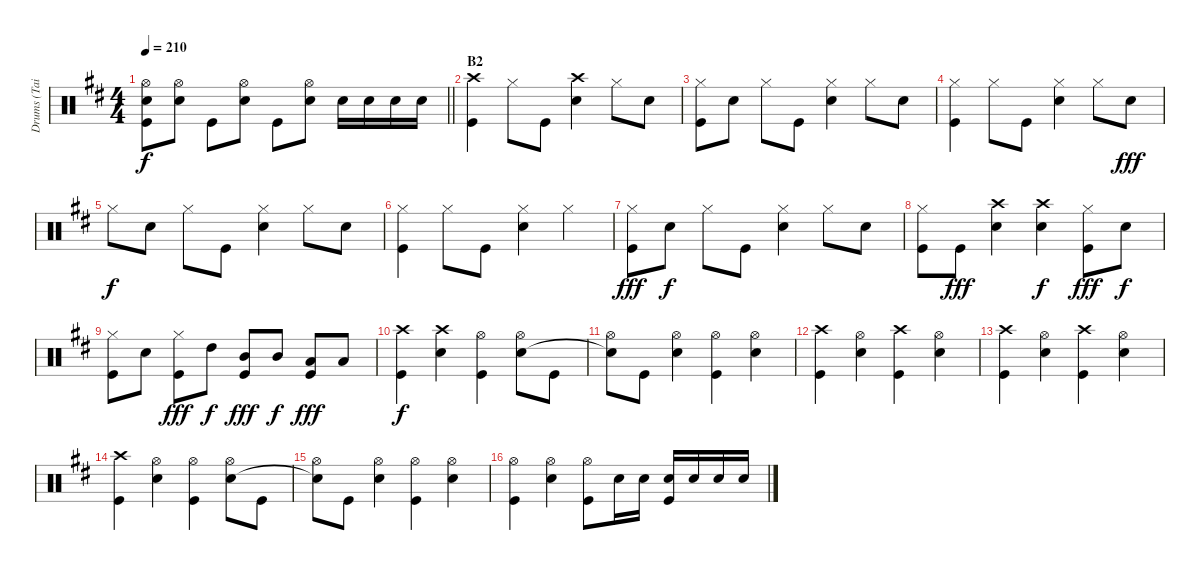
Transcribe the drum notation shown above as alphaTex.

\track ("Drums (Tainaka Ritsu)" "Drums (Tai") {instrument percussion}
\staff {score}
\articulation defaults
\ts (4 4)
\tempo 210
\clef neutral
\barLineRight lightlight
\ks d
("Hi-Hat (open)" "Snare (hit) 2" "Kick (hit)").8{dy f} ("Hi-Hat (open)" "Snare (hit) 2").8 "Kick (hit)".8 ("Hi-Hat (open)" "Snare (hit) 2").8 "Kick (hit)".8 ("Hi-Hat (open)" "Snare (hit) 2").8 "Snare (hit) 2".16 "Snare (hit) 2".16 "Snare (hit) 2".16 "Snare (hit) 2".16 |
\section ("" "B2")
("Crash high (hit)" "Kick (hit)").4 "Hi-Hat (closed)".8 "Kick (hit)".8 ("Crash high (hit)" "Snare (hit) 2").4 "Hi-Hat (closed)".8 "Snare (hit) 2".8 |
("Hi-Hat (closed)" "Kick (hit)").8 "Snare (hit) 2".8 "Hi-Hat (closed)".8 "Kick (hit)".8 ("Hi-Hat (closed)" "Snare (hit) 2").4 "Hi-Hat (closed)".8 "Snare (hit) 2".8 |
("Hi-Hat (closed)" "Kick (hit)").4 "Hi-Hat (closed)".8 "Kick (hit)".8 ("Hi-Hat (closed)" "Snare (hit) 2").4 "Hi-Hat (closed)".8 "Snare (hit) 2".8{dy fff} |
"Hi-Hat (closed)".8{dy f} "Snare (hit) 2".8 "Hi-Hat (closed)".8 "Kick (hit)".8 ("Hi-Hat (closed)" "Snare (hit) 2").4 "Hi-Hat (closed)".8 "Snare (hit) 2".8 |
("Hi-Hat (closed)" "Kick (hit)").4 "Hi-Hat (closed)".8 "Kick (hit)".8 ("Hi-Hat (closed)" "Snare (hit) 2").4 "Hi-Hat (closed)".4 |
("Hi-Hat (closed)" "Kick (hit)").8{dy fff} "Snare (hit) 2".8{dy f} "Hi-Hat (closed)".8 "Kick (hit)".8 ("Hi-Hat (closed)" "Snare (hit) 2").4 "Hi-Hat (closed)".8 "Snare (hit) 2".8 |
("Hi-Hat (closed)" "Kick (hit)").8 "Kick (hit)".8{dy fff} ("Crash high (hit)" "Snare (hit) 2").4 ("Crash high (hit)" "Snare (hit) 2").4{dy f} ("Hi-Hat (closed)" "Kick (hit)").8{dy fff} "Snare (hit) 2".8{dy f} |
("Hi-Hat (closed)" "Kick (hit)").8 "Snare (hit) 2".8 ("Hi-Hat (closed)" "Kick (hit)").8{dy fff} "High Tom (hit)".8{dy f} ("Mid Tom (hit)" "Kick (hit)").8{dy fff} "Mid Tom (hit)".8{dy f} ("Low Tom (hit)" "Kick (hit)").8{dy fff} "Low Tom (hit)".8 |
("Crash high (hit)" "Kick (hit)").4{dy f} ("Crash high (hit)" "Snare (hit) 2").4 ("Hi-Hat (open)" "Kick (hit)").4 ("Hi-Hat (open)" "Snare (hit) 2").8 "Kick (hit)".8 |
("Hi-Hat (open)" "Snare (hit)"{t}).8 "Kick (hit)".8 ("Hi-Hat (open)" "Snare (hit) 2").4 ("Hi-Hat (open)" "Kick (hit)").4 ("Hi-Hat (open)" "Snare (hit) 2").4 |
("Crash high (hit)" "Kick (hit)").4 ("Hi-Hat (open)" "Snare (hit) 2").4 ("Crash high (hit)" "Kick (hit)").4 ("Hi-Hat (open)" "Snare (hit) 2").4 |
("Crash high (hit)" "Kick (hit)").4 ("Hi-Hat (open)" "Snare (hit) 2").4 ("Crash high (hit)" "Kick (hit)").4 ("Hi-Hat (open)" "Snare (hit) 2").4 |
("Crash high (hit)" "Kick (hit)").4 ("Hi-Hat (open)" "Snare (hit) 2").4 ("Hi-Hat (open)" "Kick (hit)").4 ("Hi-Hat (open)" "Snare (hit) 2").8 "Kick (hit)".8 |
("Hi-Hat (open)" "Snare (hit)"{t}).8 "Kick (hit)".8 ("Hi-Hat (open)" "Snare (hit) 2").4 ("Hi-Hat (open)" "Kick (hit)").4 ("Hi-Hat (open)" "Snare (hit) 2").4 |
("Hi-Hat (open)" "Kick (hit)").4 ("Hi-Hat (open)" "Snare (hit) 2").4 ("Hi-Hat (open)" "Kick (hit)").8 "Snare (hit) 2".16 "Snare (hit) 2".16 ("Snare (hit) 2" "Kick (hit)").16 "Snare (hit) 2".16 "Snare (hit) 2".16 "Snare (hit) 2".16
